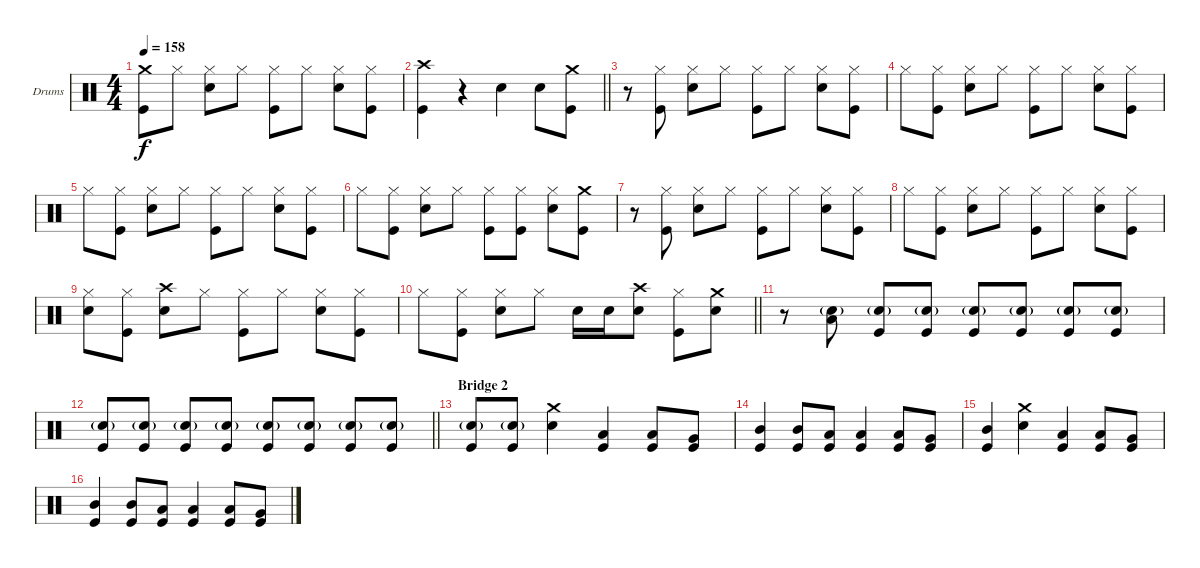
\bracketExtendMode groupsimilarinstruments
\firstSystemTrackNameOrientation horizontal
\otherSystemsTrackNameOrientation horizontal
\track ("Drumkit" "Drums") {instrument percussion}
\staff {score}
\articulation defaults
\ts (4 4)
\tempo 158
\clef neutral
\ks c
("Crash medium (hit)" "Kick (hit)").8{dy f} "Hi-Hat (closed)".8 ("Hi-Hat (closed)" "Snare (hit) 2").8 "Hi-Hat (closed)".8 ("Hi-Hat (closed)" "Kick (hit)").8 "Hi-Hat (closed)".8 ("Hi-Hat (closed)" "Snare (hit) 2").8 ("Hi-Hat (closed)" "Kick (hit)").8 |
\barLineRight lightlight
("Crash high (hit)" "Kick (hit)").4 r.4 "Snare (hit) 2".4 "Snare (hit) 2".8 ("Crash medium (hit)" "Kick (hit)").8 |
\section ("" "")
r.8 ("Hi-Hat (closed)" "Kick (hit)").8 ("Hi-Hat (closed)" "Snare (hit) 2").8 "Hi-Hat (closed)".8 ("Hi-Hat (closed)" "Kick (hit)").8 "Hi-Hat (closed)".8 ("Hi-Hat (closed)" "Snare (hit) 2").8 ("Hi-Hat (closed)" "Kick (hit)").8 |
"Hi-Hat (closed)".8 ("Hi-Hat (closed)" "Kick (hit)").8 ("Hi-Hat (closed)" "Snare (hit) 2").8 "Hi-Hat (closed)".8 ("Hi-Hat (closed)" "Kick (hit)").8 "Hi-Hat (closed)".8 ("Hi-Hat (closed)" "Snare (hit) 2").8 ("Hi-Hat (closed)" "Kick (hit)").8 |
"Hi-Hat (closed)".8 ("Hi-Hat (closed)" "Kick (hit)").8 ("Hi-Hat (closed)" "Snare (hit) 2").8 "Hi-Hat (closed)".8 ("Hi-Hat (closed)" "Kick (hit)").8 "Hi-Hat (closed)".8 ("Hi-Hat (closed)" "Snare (hit) 2").8 ("Hi-Hat (closed)" "Kick (hit)").8 |
"Hi-Hat (closed)".8 ("Hi-Hat (closed)" "Kick (hit)").8 ("Hi-Hat (closed)" "Snare (hit) 2").8 "Hi-Hat (closed)".8 ("Hi-Hat (closed)" "Kick (hit)").8 ("Hi-Hat (closed)" "Kick (hit)").8 ("Hi-Hat (closed)" "Snare (hit) 2").8 ("Crash medium (hit)" "Kick (hit)").8 |
r.8 ("Hi-Hat (closed)" "Kick (hit)").8 ("Hi-Hat (closed)" "Snare (hit) 2").8 "Hi-Hat (closed)".8 ("Hi-Hat (closed)" "Kick (hit)").8 "Hi-Hat (closed)".8 ("Hi-Hat (closed)" "Snare (hit) 2").8 ("Hi-Hat (closed)" "Kick (hit)").8 |
"Hi-Hat (closed)".8 ("Hi-Hat (closed)" "Kick (hit)").8 ("Hi-Hat (closed)" "Snare (hit) 2").8 "Hi-Hat (closed)".8 ("Hi-Hat (closed)" "Kick (hit)").8 "Hi-Hat (closed)".8 ("Hi-Hat (closed)" "Snare (hit) 2").8 ("Hi-Hat (closed)" "Kick (hit)").8 |
("Hi-Hat (closed)" "Snare (hit) 2").8 ("Hi-Hat (closed)" "Kick (hit)").8 ("Crash high (hit)" "Snare (hit) 2").8 "Hi-Hat (closed)".8 ("Hi-Hat (closed)" "Kick (hit)").8 "Hi-Hat (closed)".8 ("Hi-Hat (closed)" "Snare (hit) 2").8 ("Hi-Hat (closed)" "Kick (hit)").8 |
\barLineRight lightlight "Hi-Hat (closed)".8
("Hi-Hat (closed)" "Kick (hit)").8 ("Hi-Hat (closed)" "Snare (hit) 2").8 "Hi-Hat (closed)".8 "Snare (hit) 2".16 "Snare (hit) 2".16 ("Crash high (hit)" "Snare (hit) 2").8 ("Hi-Hat (closed)" "Kick (hit)").8 ("Crash medium (hit)" "Snare (hit) 2").8 |
\section ("" "")
r.8 ("Snare (hit) 2"{g} "Low Tom (hit)").8 ("Snare (hit) 2"{g} "Kick (hit)").8 ("Snare (hit) 2"{g} "Kick (hit)").8 ("Snare (hit) 2"{g} "Kick (hit)").8 ("Snare (hit) 2"{g} "Kick (hit)").8 ("Snare (hit) 2"{g} "Kick (hit)").8 ("Snare (hit) 2"{g} "Kick (hit)").8 |
\barLineRight lightlight
("Snare (hit) 2"{g} "Kick (hit)").8 ("Snare (hit) 2"{g} "Kick (hit)").8 ("Snare (hit) 2"{g} "Kick (hit)").8 ("Snare (hit) 2"{g} "Kick (hit)").8 ("Snare (hit) 2"{g} "Kick (hit)").8 ("Snare (hit) 2"{g} "Kick (hit)").8 ("Snare (hit) 2"{g} "Kick (hit)").8 ("Snare (hit) 2"{g} "Kick (hit)").8 |
\section ("" "Bridge 2")
("Snare (hit) 2"{g} "Kick (hit)").8 ("Snare (hit) 2"{g} "Kick (hit)").8 ("Crash medium (hit)" "Snare (hit) 2").4 ("Kick (hit)" "Low Tom (hit)").4 ("Kick (hit)" "Low Tom (hit)").8 ("Kick (hit)" "Very Low Tom (hit)").8 |
("Kick (hit)" "Mid Tom (hit)").4 ("Kick (hit)" "Mid Tom (hit)").8 ("Kick (hit)" "Low Tom (hit)").8 ("Kick (hit)" "Low Tom (hit)").4 ("Kick (hit)" "Low Tom (hit)").8 ("Kick (hit)" "Very Low Tom (hit)").8 |
("Kick (hit)" "Mid Tom (hit)").4 ("Crash medium (hit)" "Snare (hit) 2").4 ("Kick (hit)" "Low Tom (hit)").4 ("Kick (hit)" "Low Tom (hit)").8 ("Kick (hit)" "Very Low Tom (hit)").8 |
("Kick (hit)" "Mid Tom (hit)").4 ("Kick (hit)" "Mid Tom (hit)").8 ("Kick (hit)" "Low Tom (hit)").8 ("Kick (hit)" "Low Tom (hit)").4 ("Kick (hit)" "Low Tom (hit)").8 ("Kick (hit)" "Very Low Tom (hit)").8
